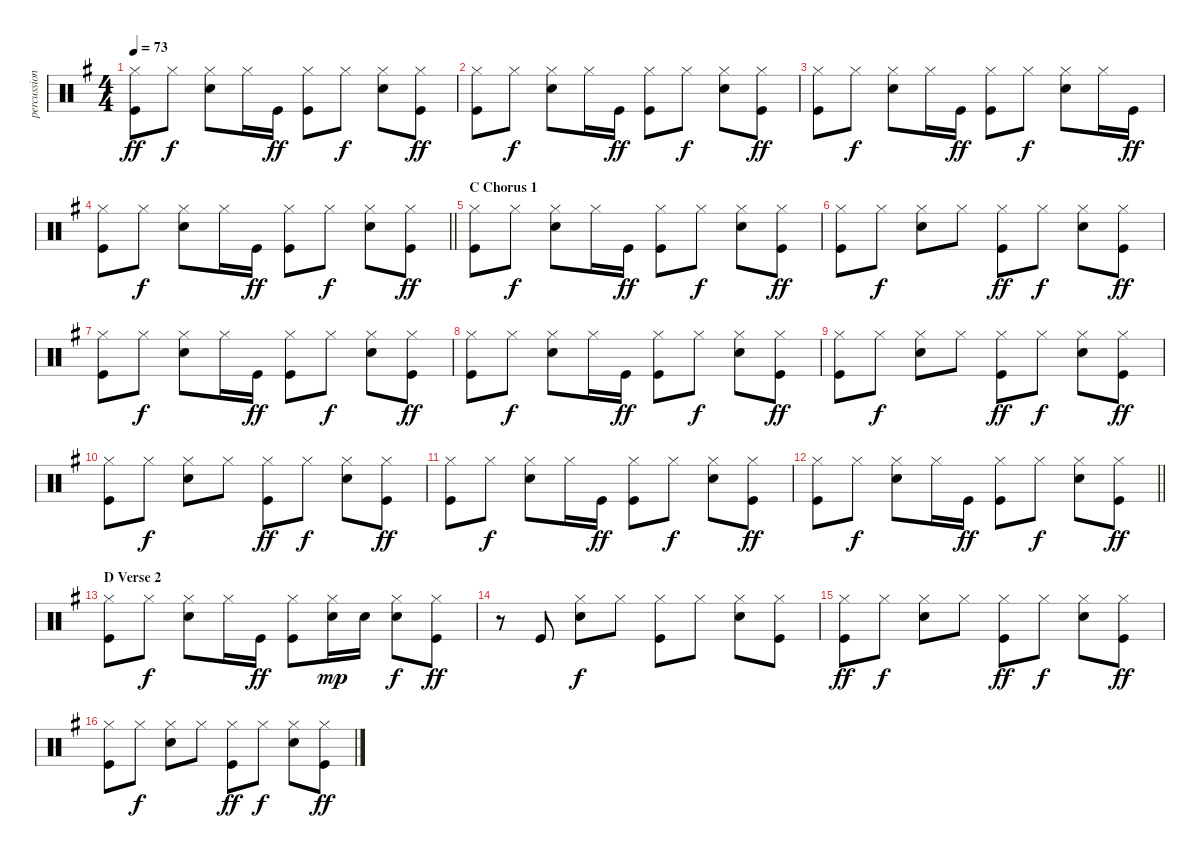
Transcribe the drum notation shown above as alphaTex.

\track ("percussion" "percussion") {instrument percussion}
\staff {score}
\articulation defaults
\ts (4 4)
\tempo 73
\clef neutral
\ks g
("Hi-Hat (closed)" "Kick (hit)").8{dy ff} "Hi-Hat (closed)".8{dy f} ("Electric Snare (hit)" "Hi-Hat (closed)").8 "Hi-Hat (closed)".16 "Kick (hit)".16{dy ff} ("Hi-Hat (closed)" "Kick (hit)").8 "Hi-Hat (closed)".8{dy f} ("Electric Snare (hit)" "Hi-Hat (closed)").8 ("Hi-Hat (closed)" "Kick (hit)").8{dy ff} |
("Hi-Hat (closed)" "Kick (hit)").8 "Hi-Hat (closed)".8{dy f} ("Electric Snare (hit)" "Hi-Hat (closed)").8 "Hi-Hat (closed)".16 "Kick (hit)".16{dy ff} ("Hi-Hat (closed)" "Kick (hit)").8 "Hi-Hat (closed)".8{dy f} ("Electric Snare (hit)" "Hi-Hat (closed)").8 ("Hi-Hat (closed)" "Kick (hit)").8{dy ff} |
("Hi-Hat (closed)" "Kick (hit)").8 "Hi-Hat (closed)".8{dy f} ("Electric Snare (hit)" "Hi-Hat (closed)").8 "Hi-Hat (closed)".16 "Kick (hit)".16{dy ff} ("Hi-Hat (closed)" "Kick (hit)").8 "Hi-Hat (closed)".8{dy f} ("Electric Snare (hit)" "Hi-Hat (closed)").8 "Hi-Hat (closed)".16 "Kick (hit)".16{dy ff} |
\barLineRight lightlight
("Hi-Hat (closed)" "Kick (hit)").8 "Hi-Hat (closed)".8{dy f} ("Electric Snare (hit)" "Hi-Hat (closed)").8 "Hi-Hat (closed)".16 "Kick (hit)".16{dy ff} ("Hi-Hat (closed)" "Kick (hit)").8 "Hi-Hat (closed)".8{dy f} ("Electric Snare (hit)" "Hi-Hat (closed)").8 ("Hi-Hat (closed)" "Kick (hit)").8{dy ff} |
\section ("" "C Chorus 1")
("Hi-Hat (closed)" "Kick (hit)").8 "Hi-Hat (closed)".8{dy f} ("Electric Snare (hit)" "Hi-Hat (closed)").8 "Hi-Hat (closed)".16 "Kick (hit)".16{dy ff} ("Hi-Hat (closed)" "Kick (hit)").8 "Hi-Hat (closed)".8{dy f} ("Electric Snare (hit)" "Hi-Hat (closed)").8 ("Hi-Hat (closed)" "Kick (hit)").8{dy ff} |
("Hi-Hat (closed)" "Kick (hit)").8 "Hi-Hat (closed)".8{dy f} ("Electric Snare (hit)" "Hi-Hat (closed)").8 "Hi-Hat (closed)".8 ("Hi-Hat (closed)" "Kick (hit)").8{dy ff} "Hi-Hat (closed)".8{dy f} ("Electric Snare (hit)" "Hi-Hat (closed)").8 ("Hi-Hat (closed)" "Kick (hit)").8{dy ff} |
("Hi-Hat (closed)" "Kick (hit)").8 "Hi-Hat (closed)".8{dy f} ("Electric Snare (hit)" "Hi-Hat (closed)").8 "Hi-Hat (closed)".16 "Kick (hit)".16{dy ff} ("Hi-Hat (closed)" "Kick (hit)").8 "Hi-Hat (closed)".8{dy f} ("Electric Snare (hit)" "Hi-Hat (closed)").8 ("Hi-Hat (closed)" "Kick (hit)").8{dy ff} |
("Hi-Hat (closed)" "Kick (hit)").8 "Hi-Hat (closed)".8{dy f} ("Electric Snare (hit)" "Hi-Hat (closed)").8 "Hi-Hat (closed)".16 "Kick (hit)".16{dy ff} ("Hi-Hat (closed)" "Kick (hit)").8 "Hi-Hat (closed)".8{dy f} ("Electric Snare (hit)" "Hi-Hat (closed)").8 ("Hi-Hat (closed)" "Kick (hit)").8{dy ff} |
("Hi-Hat (closed)" "Kick (hit)").8 "Hi-Hat (closed)".8{dy f} ("Electric Snare (hit)" "Hi-Hat (closed)").8 "Hi-Hat (closed)".8 ("Hi-Hat (closed)" "Kick (hit)").8{dy ff} "Hi-Hat (closed)".8{dy f} ("Electric Snare (hit)" "Hi-Hat (closed)").8 ("Hi-Hat (closed)" "Kick (hit)").8{dy ff} |
("Hi-Hat (closed)" "Kick (hit)").8 "Hi-Hat (closed)".8{dy f} ("Electric Snare (hit)" "Hi-Hat (closed)").8 "Hi-Hat (closed)".8 ("Hi-Hat (closed)" "Kick (hit)").8{dy ff} "Hi-Hat (closed)".8{dy f} ("Electric Snare (hit)" "Hi-Hat (closed)").8 ("Hi-Hat (closed)" "Kick (hit)").8{dy ff} |
("Hi-Hat (closed)" "Kick (hit)").8 "Hi-Hat (closed)".8{dy f} ("Electric Snare (hit)" "Hi-Hat (closed)").8 "Hi-Hat (closed)".16 "Kick (hit)".16{dy ff} ("Hi-Hat (closed)" "Kick (hit)").8 "Hi-Hat (closed)".8{dy f} ("Electric Snare (hit)" "Hi-Hat (closed)").8 ("Hi-Hat (closed)" "Kick (hit)").8{dy ff} |
\barLineRight lightlight
("Hi-Hat (closed)" "Kick (hit)").8 "Hi-Hat (closed)".8{dy f} ("Electric Snare (hit)" "Hi-Hat (closed)").8 "Hi-Hat (closed)".16 "Kick (hit)".16{dy ff} ("Hi-Hat (closed)" "Kick (hit)").8 "Hi-Hat (closed)".8{dy f} ("Electric Snare (hit)" "Hi-Hat (closed)").8 ("Hi-Hat (closed)" "Kick (hit)").8{dy ff} |
\section ("" "D Verse 2")
("Hi-Hat (closed)" "Kick (hit)").8 "Hi-Hat (closed)".8{dy f} ("Electric Snare (hit)" "Hi-Hat (closed)").8 "Hi-Hat (closed)".16 "Kick (hit)".16{dy ff} ("Hi-Hat (closed)" "Kick (hit)").8 ("Electric Snare (hit)" "Hi-Hat (closed)").16{dy mp} "Electric Snare (hit)".16 ("Electric Snare (hit)" "Hi-Hat (closed)").8{dy f} ("Hi-Hat (closed)" "Kick (hit)").8{dy ff} |
r.8 "Kick (hit)".8 ("Electric Snare (hit)" "Hi-Hat (closed)").8{dy f} "Hi-Hat (closed)".8 ("Hi-Hat (closed)" "Kick (hit)").8 "Hi-Hat (closed)".8 ("Electric Snare (hit)" "Hi-Hat (closed)").8 ("Hi-Hat (closed)" "Kick (hit)").8 |
("Hi-Hat (closed)" "Kick (hit)").8{dy ff} "Hi-Hat (closed)".8{dy f} ("Electric Snare (hit)" "Hi-Hat (closed)").8 "Hi-Hat (closed)".8 ("Hi-Hat (closed)" "Kick (hit)").8{dy ff} "Hi-Hat (closed)".8{dy f} ("Electric Snare (hit)" "Hi-Hat (closed)").8 ("Hi-Hat (closed)" "Kick (hit)").8{dy ff} |
("Hi-Hat (closed)" "Kick (hit)").8 "Hi-Hat (closed)".8{dy f} ("Electric Snare (hit)" "Hi-Hat (closed)").8 "Hi-Hat (closed)".8 ("Hi-Hat (closed)" "Kick (hit)").8{dy ff} "Hi-Hat (closed)".8{dy f} ("Electric Snare (hit)" "Hi-Hat (closed)").8 ("Hi-Hat (closed)" "Kick (hit)").8{dy ff}
